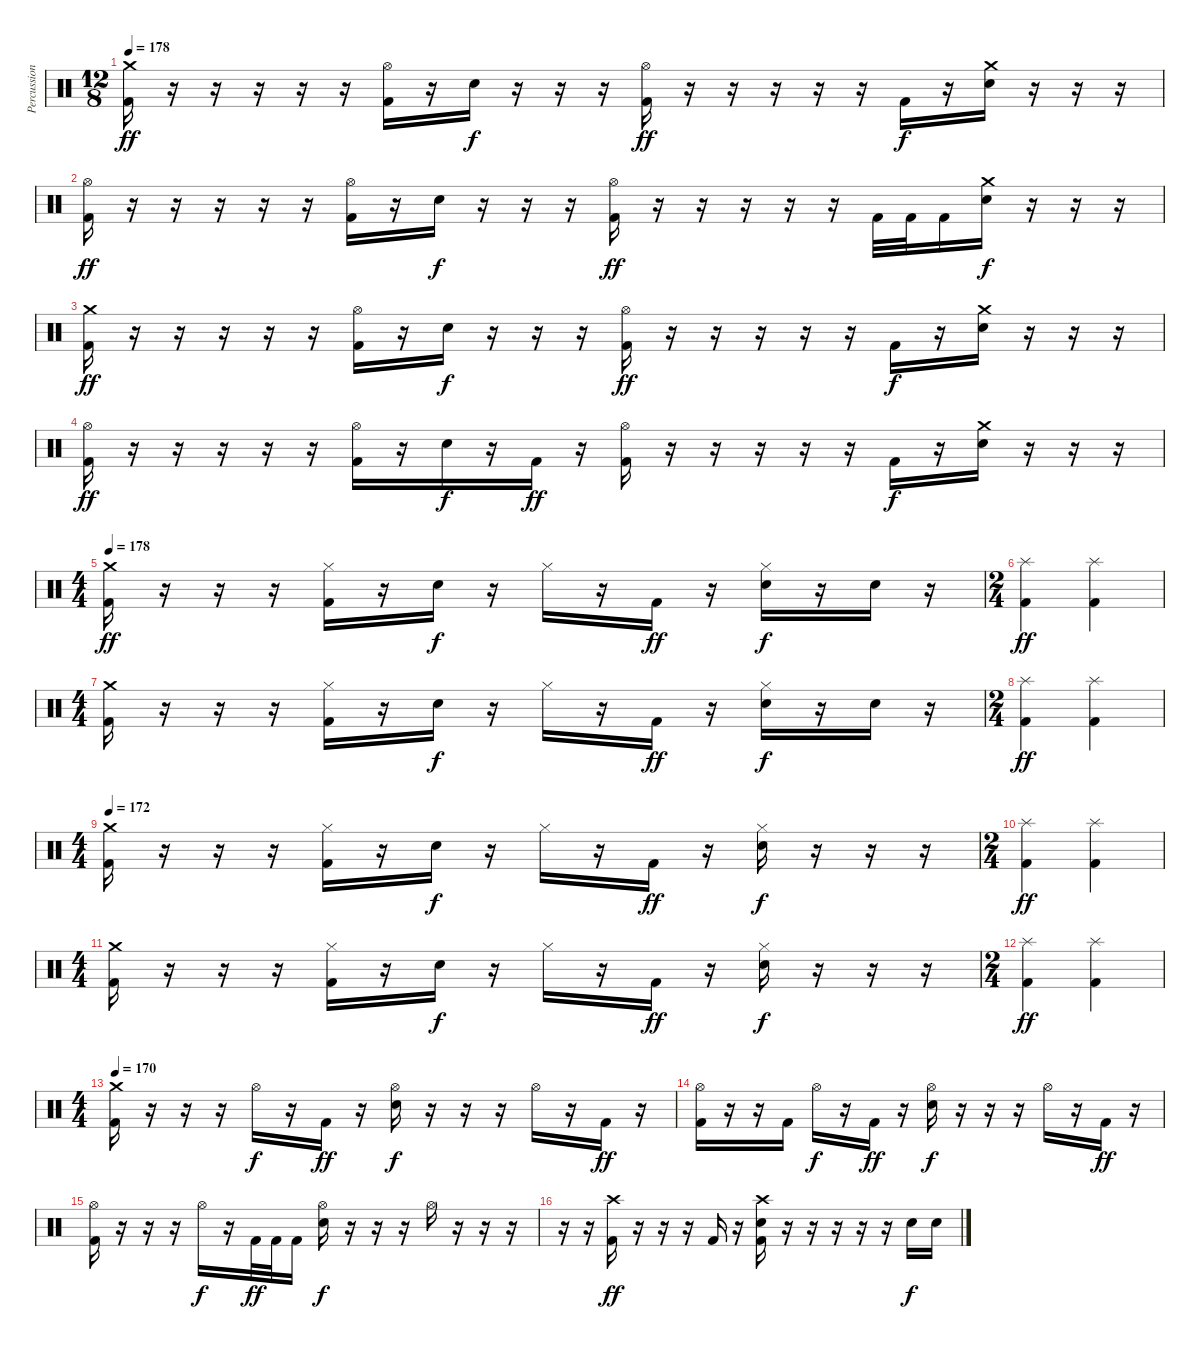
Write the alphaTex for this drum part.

\track ("Percussion" "Percussion") {instrument percussion}
\staff {score}
\articulation defaults
\ts (12 8)
\tempo 178
\clef neutral
\ks c
("Crash medium (hit)" "Kick (hit) 2").16{dy ff} r.16 r.16 r.16 r.16 r.16 ("Hi-Hat (open)" "Kick (hit) 2").16 r.16 "Electric Snare (hit)".16{dy f} r.16 r.16 r.16 ("Hi-Hat (open)" "Kick (hit) 2").16{dy ff} r.16 r.16 r.16 r.16 r.16 "Kick (hit) 2".16{dy f} r.16 ("Crash medium (hit)" "Electric Snare (hit)").16 r.16 r.16 r.16 |
("Hi-Hat (open)" "Kick (hit) 2").16{dy ff} r.16 r.16 r.16 r.16 r.16 ("Hi-Hat (open)" "Kick (hit) 2").16 r.16 "Electric Snare (hit)".16{dy f} r.16 r.16 r.16 ("Hi-Hat (open)" "Kick (hit) 2").16{dy ff} r.16 r.16 r.16 r.16 r.16 "Kick (hit) 2".32 "Kick (hit) 2".32 "Kick (hit) 2".16 ("Crash medium (hit)" "Electric Snare (hit)").16{dy f} r.16 r.16 r.16 |
("Crash medium (hit)" "Kick (hit) 2").16{dy ff} r.16 r.16 r.16 r.16 r.16 ("Hi-Hat (open)" "Kick (hit) 2").16 r.16 "Electric Snare (hit)".16{dy f} r.16 r.16 r.16 ("Hi-Hat (open)" "Kick (hit) 2").16{dy ff} r.16 r.16 r.16 r.16 r.16 "Kick (hit) 2".16{dy f} r.16 ("Crash medium (hit)" "Electric Snare (hit)").16 r.16 r.16 r.16 |
("Hi-Hat (open)" "Kick (hit) 2").16{dy ff} r.16 r.16 r.16 r.16 r.16 ("Hi-Hat (open)" "Kick (hit) 2").16 r.16 "Electric Snare (hit)".16{dy f} r.16 "Kick (hit) 2".16{dy ff} r.16 ("Hi-Hat (open)" "Kick (hit) 2").16 r.16 r.16 r.16 r.16 r.16 "Kick (hit) 2".16{dy f} r.16 ("Crash medium (hit)" "Electric Snare (hit)").16 r.16 r.16 r.16 |
\ts (4 4)
\tempo 178
("Crash medium (hit)" "Kick (hit) 2").16{dy ff} r.16 r.16 r.16 ("Hi-Hat (closed)" "Kick (hit) 2").16 r.16 "Electric Snare (hit)".16{dy f} r.16 "Hi-Hat (closed)".16 r.16 "Kick (hit) 2".16{dy ff} r.16 ("Hi-Hat (closed)" "Electric Snare (hit)").16{dy f} r.16 "Electric Snare (hit)".16 r.16 |
\ts (2 4)
("Splash (hit)" "Kick (hit) 2").4{dy ff} ("Splash (hit)" "Kick (hit) 2").4 |
\ts (4 4)
("Crash medium (hit)" "Kick (hit) 2").16 r.16 r.16 r.16 ("Hi-Hat (closed)" "Kick (hit) 2").16 r.16 "Electric Snare (hit)".16{dy f} r.16 "Hi-Hat (closed)".16 r.16 "Kick (hit) 2".16{dy ff} r.16 ("Hi-Hat (closed)" "Electric Snare (hit)").16{dy f} r.16 "Electric Snare (hit)".16 r.16 |
\ts (2 4)
("Splash (hit)" "Kick (hit) 2").4{dy ff} ("Splash (hit)" "Kick (hit) 2").4 |
\ts (4 4)
\tempo 172
("Crash medium (hit)" "Kick (hit) 2").16 r.16 r.16 r.16 ("Hi-Hat (closed)" "Kick (hit) 2").16 r.16 "Electric Snare (hit)".16{dy f} r.16 "Hi-Hat (closed)".16 r.16 "Kick (hit) 2".16{dy ff} r.16 ("Hi-Hat (closed)" "Electric Snare (hit)").16{dy f} r.16 r.16 r.16 |
\ts (2 4)
("Splash (hit)" "Kick (hit) 2").4{dy ff} ("Splash (hit)" "Kick (hit) 2").4 |
\ts (4 4)
("Crash medium (hit)" "Kick (hit) 2").16 r.16 r.16 r.16 ("Hi-Hat (closed)" "Kick (hit) 2").16 r.16 "Electric Snare (hit)".16{dy f} r.16 "Hi-Hat (closed)".16 r.16 "Kick (hit) 2".16{dy ff} r.16 ("Hi-Hat (closed)" "Electric Snare (hit)").16{dy f} r.16 r.16 r.16 |
\ts (2 4)
("Splash (hit)" "Kick (hit) 2").4{dy ff} ("Splash (hit)" "Kick (hit) 2").4 |
\ts (4 4)
\tempo 170
("Crash medium (hit)" "Kick (hit) 2").16 r.16 r.16 r.16 "Hi-Hat (open)".16{dy f} r.16 "Kick (hit) 2".16{dy ff} r.16 ("Hi-Hat (open)" "Electric Snare (hit)").16{dy f} r.16 r.16 r.16 "Hi-Hat (open)".16 r.16 "Kick (hit) 2".16{dy ff} r.16 |
("Hi-Hat (open)" "Kick (hit) 2").16 r.16 r.16 "Kick (hit) 2".16 "Hi-Hat (open)".16{dy f} r.16 "Kick (hit) 2".16{dy ff} r.16 ("Hi-Hat (open)" "Electric Snare (hit)").16{dy f} r.16 r.16 r.16 "Hi-Hat (open)".16 r.16 "Kick (hit) 2".16{dy ff} r.16 |
("Hi-Hat (open)" "Kick (hit) 2").16 r.16 r.16 r.16 "Hi-Hat (open)".16{dy f} r.16 "Kick (hit) 2".32{dy ff} "Kick (hit) 2".32 "Kick (hit) 2".16 ("Hi-Hat (open)" "Electric Snare (hit)").16{dy f} r.16 r.16 r.16 "Hi-Hat (open)".16 r.16 r.16 r.16 |
r.16 r.16 ("Crash high (hit)" "Kick (hit) 2").16{dy ff} r.16 r.16 r.16 "Kick (hit) 2".16 r.16 ("Crash high (hit)" "Electric Snare (hit)" "Kick (hit) 2").16 r.16 r.16 r.16 r.16 r.16 "Electric Snare (hit)".16{dy f} "Electric Snare (hit)".16
